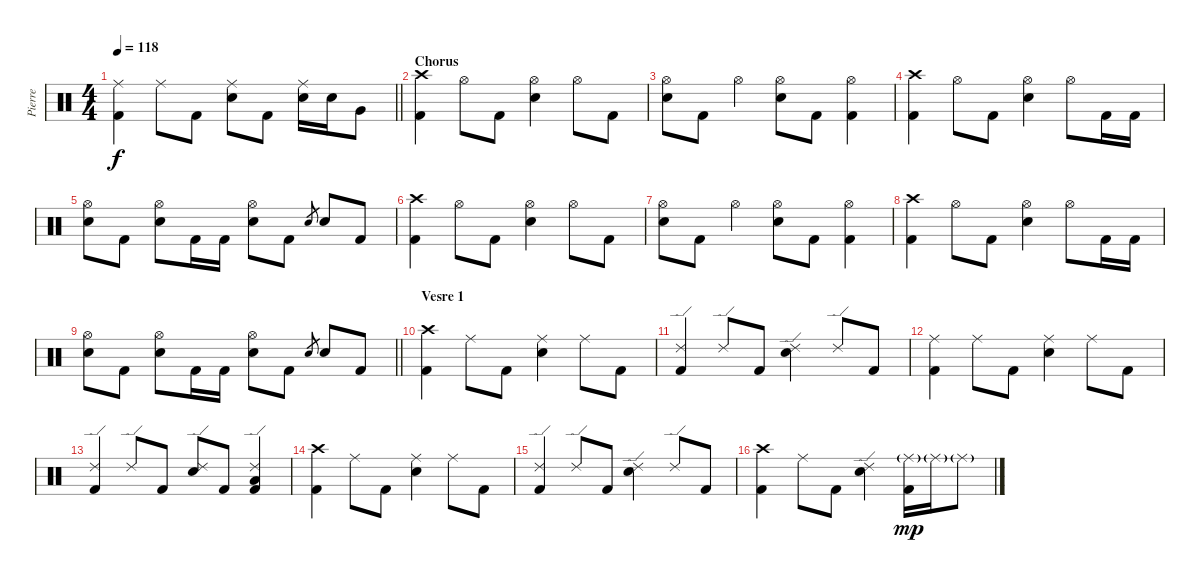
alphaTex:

\track ("Pierre" "Pierre") {instrument percussion}
\staff {score}
\articulation defaults
\ts (4 4)
\tempo 118
\clef neutral
\barLineRight lightlight
\ks c
("Ride (middle)" "Kick (hit) 2").4{dy f} "Ride (middle)".8 "Kick (hit) 2".8 ("Ride (middle)" "Snare (hit) 2").8 "Kick (hit) 2".8 ("Ride (middle)" "Snare (hit) 2").16 "Snare (hit) 2".16 "Very Low Tom (hit)".8 |
\section ("" "Chorus")
("Crash high (hit)" "Kick (hit) 2").4 "Hi-Hat (open)".8 "Kick (hit) 2".8 ("Hi-Hat (open)" "Snare (hit) 2").4 "Hi-Hat (open)".8 "Kick (hit) 2".8 |
("Hi-Hat (open)" "Snare (hit) 2").8 "Kick (hit) 2".8 "Hi-Hat (open)".4 ("Hi-Hat (open)" "Snare (hit) 2").8 "Kick (hit) 2".8 ("Hi-Hat (open)" "Kick (hit) 2").4 |
("Crash high (hit)" "Kick (hit) 2").4 "Hi-Hat (open)".8 "Kick (hit) 2".8 ("Hi-Hat (open)" "Snare (hit) 2").4 "Hi-Hat (open)".8 "Kick (hit) 2".16 "Kick (hit) 2".16 |
("Hi-Hat (open)" "Snare (hit) 2").8 "Kick (hit) 2".8 ("Hi-Hat (open)" "Snare (hit) 2").8 "Kick (hit) 2".16 "Kick (hit) 2".16 ("Hi-Hat (open)" "Snare (hit) 2").8 "Kick (hit) 2".8 "Snare (hit) 2".8{gr} "Snare (hit) 2".8 "Kick (hit) 2".8 |
("Crash high (hit)" "Kick (hit) 2").4 "Hi-Hat (open)".8 "Kick (hit) 2".8 ("Hi-Hat (open)" "Snare (hit) 2").4 "Hi-Hat (open)".8 "Kick (hit) 2".8 |
("Hi-Hat (open)" "Snare (hit) 2").8 "Kick (hit) 2".8 "Hi-Hat (open)".4 ("Hi-Hat (open)" "Snare (hit) 2").8 "Kick (hit) 2".8 ("Hi-Hat (open)" "Kick (hit) 2").4 |
("Crash high (hit)" "Kick (hit) 2").4 "Hi-Hat (open)".8 "Kick (hit) 2".8 ("Hi-Hat (open)" "Snare (hit) 2").4 "Hi-Hat (open)".8 "Kick (hit) 2".16 "Kick (hit) 2".16 |
\barLineRight lightlight
("Hi-Hat (open)" "Snare (hit) 2").8 "Kick (hit) 2".8 ("Hi-Hat (open)" "Snare (hit) 2").8 "Kick (hit) 2".16 "Kick (hit) 2".16 ("Hi-Hat (open)" "Snare (hit) 2").8 "Kick (hit) 2".8 "Snare (hit) 2".8{gr} "Snare (hit) 2".8 "Kick (hit) 2".8 |
\section ("" "Vesre 1")
("Crash high (hit)" "Kick (hit) 2").4 "Ride (middle)".8 "Kick (hit) 2".8 ("Ride (middle)" "Snare (hit) 2").4 "Ride (middle)".8 "Kick (hit) 2".8 |
("Ride (edge) 2" "Kick (hit) 2").4 "Ride (edge) 2".8 "Kick (hit) 2".8 ("Ride (edge) 2" "Snare (hit) 2").4 "Ride (edge) 2".8 "Kick (hit) 2".8 |
("Ride (middle)" "Kick (hit) 2").4 "Ride (middle)".8 "Kick (hit) 2".8 ("Ride (middle)" "Snare (hit) 2").4 "Ride (middle)".8 "Kick (hit) 2".8 |
("Ride (edge) 2" "Kick (hit) 2").4 "Ride (edge) 2".8 "Kick (hit) 2".8 ("Ride (edge) 2" "Snare (hit) 2").8 "Kick (hit) 2".8 ("Ride (edge) 2" "Low Tom (hit)" "Kick (hit) 2").4 |
("Crash high (hit)" "Kick (hit) 2").4 "Ride (middle)".8 "Kick (hit) 2".8 ("Ride (middle)" "Snare (hit) 2").4 "Ride (middle)".8 "Kick (hit) 2".8 |
("Ride (edge) 2" "Kick (hit) 2").4 "Ride (edge) 2".8 "Kick (hit) 2".8 ("Ride (edge) 2" "Snare (hit) 2").4 "Ride (edge) 2".8 "Kick (hit) 2".8 |
("Crash high (hit)" "Kick (hit) 2").4 "Ride (middle)".8 "Kick (hit) 2".8 ("Ride (edge) 2" "Snare (hit) 2").4 ("Ride (middle)"{g} "Kick (hit) 2").16{dy mp} "Ride (middle)"{g}.16 "Ride (middle)"{g}.8
